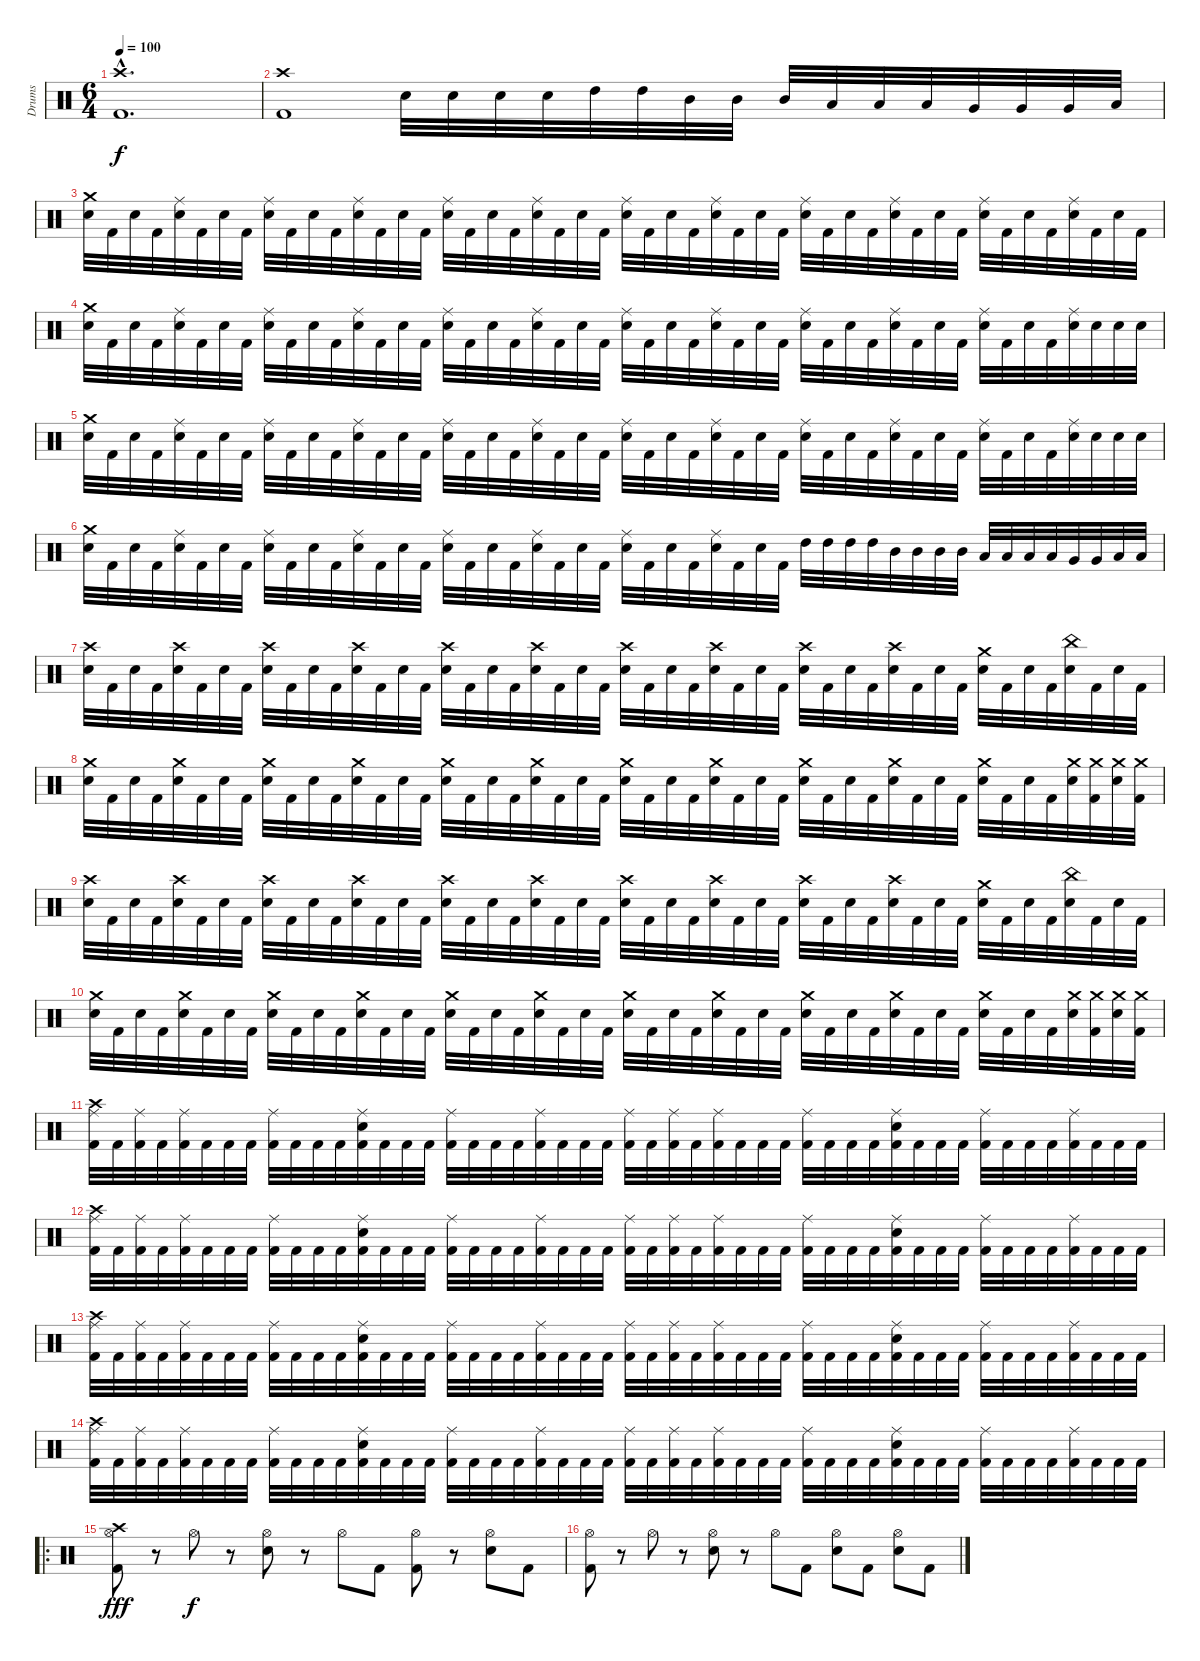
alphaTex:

\track ("Drums" "Drums") {instrument percussion}
\staff {score}
\articulation defaults
\ts (6 4)
\tempo 100
\clef neutral
\ks c
("Crash high (hit)"{hac} "Kick (hit) 2"{hac}).1{d dy f} |
("Crash high (hit)" "Kick (hit) 2").1 "Electric Snare (hit)".32 "Electric Snare (hit)".32 "Electric Snare (hit)".32 "Electric Snare (hit)".32 "High Tom (hit)".32 "High Tom (hit)".32 "Mid Tom (hit)".32 "Mid Tom (hit)".32 "Mid Tom (hit)".32 "Low Tom (hit)".32 "Low Tom (hit)".32 "Low Tom (hit)".32 "Very Low Tom (hit)".32 "Very Low Tom (hit)".32 "Very Low Tom (hit)".32 "Low Floor Tom (hit)".32 |
("Electric Snare (hit)" "Crash medium (hit)").32 "Kick (hit) 2".32 "Electric Snare (hit)".32 "Kick (hit) 2".32 ("Electric Snare (hit)" "Ride (middle)").32 "Kick (hit) 2".32 "Electric Snare (hit)".32 "Kick (hit) 2".32 ("Electric Snare (hit)" "Ride (middle)").32 "Kick (hit) 2".32 "Electric Snare (hit)".32 "Kick (hit) 2".32 ("Electric Snare (hit)" "Ride (middle)").32 "Kick (hit) 2".32 "Electric Snare (hit)".32 "Kick (hit) 2".32 ("Electric Snare (hit)" "Ride (middle)").32 "Kick (hit) 2".32 "Electric Snare (hit)".32 "Kick (hit) 2".32 ("Electric Snare (hit)" "Ride (middle)").32 "Kick (hit) 2".32 "Electric Snare (hit)".32 "Kick (hit) 2".32 ("Electric Snare (hit)" "Ride (middle)").32 "Kick (hit) 2".32 "Electric Snare (hit)".32 "Kick (hit) 2".32 ("Electric Snare (hit)" "Ride (middle)").32 "Kick (hit) 2".32 "Electric Snare (hit)".32 "Kick (hit) 2".32 ("Electric Snare (hit)" "Ride (middle)").32 "Kick (hit) 2".32 "Electric Snare (hit)".32 "Kick (hit) 2".32 ("Electric Snare (hit)" "Ride (middle)").32 "Kick (hit) 2".32 "Electric Snare (hit)".32 "Kick (hit) 2".32 ("Electric Snare (hit)" "Ride (middle)").32 "Kick (hit) 2".32 "Electric Snare (hit)".32 "Kick (hit) 2".32 ("Electric Snare (hit)" "Ride (middle)").32 "Kick (hit) 2".32 "Electric Snare (hit)".32 "Kick (hit) 2".32 |
("Electric Snare (hit)" "Crash medium (hit)").32 "Kick (hit) 2".32 "Electric Snare (hit)".32 "Kick (hit) 2".32 ("Electric Snare (hit)" "Ride (middle)").32 "Kick (hit) 2".32 "Electric Snare (hit)".32 "Kick (hit) 2".32 ("Electric Snare (hit)" "Ride (middle)").32 "Kick (hit) 2".32 "Electric Snare (hit)".32 "Kick (hit) 2".32 ("Electric Snare (hit)" "Ride (middle)").32 "Kick (hit) 2".32 "Electric Snare (hit)".32 "Kick (hit) 2".32 ("Electric Snare (hit)" "Ride (middle)").32 "Kick (hit) 2".32 "Electric Snare (hit)".32 "Kick (hit) 2".32 ("Electric Snare (hit)" "Ride (middle)").32 "Kick (hit) 2".32 "Electric Snare (hit)".32 "Kick (hit) 2".32 ("Electric Snare (hit)" "Ride (middle)").32 "Kick (hit) 2".32 "Electric Snare (hit)".32 "Kick (hit) 2".32 ("Electric Snare (hit)" "Ride (middle)").32 "Kick (hit) 2".32 "Electric Snare (hit)".32 "Kick (hit) 2".32 ("Electric Snare (hit)" "Ride (middle)").32 "Kick (hit) 2".32 "Electric Snare (hit)".32 "Kick (hit) 2".32 ("Electric Snare (hit)" "Ride (middle)").32 "Kick (hit) 2".32 "Electric Snare (hit)".32 "Kick (hit) 2".32 ("Electric Snare (hit)" "Ride (middle)").32 "Kick (hit) 2".32 "Electric Snare (hit)".32 "Kick (hit) 2".32 ("Electric Snare (hit)" "Ride (middle)").32 "Electric Snare (hit)".32 "Electric Snare (hit)".32 "Electric Snare (hit)".32 |
("Electric Snare (hit)" "Crash medium (hit)").32 "Kick (hit) 2".32 "Electric Snare (hit)".32 "Kick (hit) 2".32 ("Electric Snare (hit)" "Ride (middle)").32 "Kick (hit) 2".32 "Electric Snare (hit)".32 "Kick (hit) 2".32 ("Electric Snare (hit)" "Ride (middle)").32 "Kick (hit) 2".32 "Electric Snare (hit)".32 "Kick (hit) 2".32 ("Electric Snare (hit)" "Ride (middle)").32 "Kick (hit) 2".32 "Electric Snare (hit)".32 "Kick (hit) 2".32 ("Electric Snare (hit)" "Ride (middle)").32 "Kick (hit) 2".32 "Electric Snare (hit)".32 "Kick (hit) 2".32 ("Electric Snare (hit)" "Ride (middle)").32 "Kick (hit) 2".32 "Electric Snare (hit)".32 "Kick (hit) 2".32 ("Electric Snare (hit)" "Ride (middle)").32 "Kick (hit) 2".32 "Electric Snare (hit)".32 "Kick (hit) 2".32 ("Electric Snare (hit)" "Ride (middle)").32 "Kick (hit) 2".32 "Electric Snare (hit)".32 "Kick (hit) 2".32 ("Electric Snare (hit)" "Ride (middle)").32 "Kick (hit) 2".32 "Electric Snare (hit)".32 "Kick (hit) 2".32 ("Electric Snare (hit)" "Ride (middle)").32 "Kick (hit) 2".32 "Electric Snare (hit)".32 "Kick (hit) 2".32 ("Electric Snare (hit)" "Ride (middle)").32 "Kick (hit) 2".32 "Electric Snare (hit)".32 "Kick (hit) 2".32 ("Electric Snare (hit)" "Ride (middle)").32 "Electric Snare (hit)".32 "Electric Snare (hit)".32 "Electric Snare (hit)".32 |
("Electric Snare (hit)" "Crash medium (hit)").32 "Kick (hit) 2".32 "Electric Snare (hit)".32 "Kick (hit) 2".32 ("Electric Snare (hit)" "Ride (middle)").32 "Kick (hit) 2".32 "Electric Snare (hit)".32 "Kick (hit) 2".32 ("Electric Snare (hit)" "Ride (middle)").32 "Kick (hit) 2".32 "Electric Snare (hit)".32 "Kick (hit) 2".32 ("Electric Snare (hit)" "Ride (middle)").32 "Kick (hit) 2".32 "Electric Snare (hit)".32 "Kick (hit) 2".32 ("Electric Snare (hit)" "Ride (middle)").32 "Kick (hit) 2".32 "Electric Snare (hit)".32 "Kick (hit) 2".32 ("Electric Snare (hit)" "Ride (middle)").32 "Kick (hit) 2".32 "Electric Snare (hit)".32 "Kick (hit) 2".32 ("Electric Snare (hit)" "Ride (middle)").32 "Kick (hit) 2".32 "Electric Snare (hit)".32 "Kick (hit) 2".32 ("Electric Snare (hit)" "Ride (middle)").32 "Kick (hit) 2".32 "Electric Snare (hit)".32 "Kick (hit) 2".32 "High Tom (hit)".32 "High Tom (hit)".32 "High Tom (hit)".32 "High Tom (hit)".32 "Mid Tom (hit)".32 "Mid Tom (hit)".32 "Mid Tom (hit)".32 "Mid Tom (hit)".32 "Low Tom (hit)".32 "Low Tom (hit)".32 "Low Tom (hit)".32 "Low Tom (hit)".32 "Very Low Tom (hit)".32 "Very Low Tom (hit)".32 "Low Floor Tom (hit)".32 "Low Floor Tom (hit)".32 |
("Electric Snare (hit)" "Crash high (hit)").32 "Kick (hit) 2".32 "Electric Snare (hit)".32 "Kick (hit) 2".32 ("Electric Snare (hit)" "Crash high (hit)").32 "Kick (hit) 2".32 "Electric Snare (hit)".32 "Kick (hit) 2".32 ("Electric Snare (hit)" "Crash high (hit)").32 "Kick (hit) 2".32 "Electric Snare (hit)".32 "Kick (hit) 2".32 ("Electric Snare (hit)" "Crash high (hit)").32 "Kick (hit) 2".32 "Electric Snare (hit)".32 "Kick (hit) 2".32 ("Electric Snare (hit)" "Crash high (hit)").32 "Kick (hit) 2".32 "Electric Snare (hit)".32 "Kick (hit) 2".32 ("Electric Snare (hit)" "Crash high (hit)").32 "Kick (hit) 2".32 "Electric Snare (hit)".32 "Kick (hit) 2".32 ("Electric Snare (hit)" "Crash high (hit)").32 "Kick (hit) 2".32 "Electric Snare (hit)".32 "Kick (hit) 2".32 ("Electric Snare (hit)" "Crash high (hit)").32 "Kick (hit) 2".32 "Electric Snare (hit)".32 "Kick (hit) 2".32 ("Electric Snare (hit)" "Crash high (hit)").32 "Kick (hit) 2".32 "Electric Snare (hit)".32 "Kick (hit) 2".32 ("Electric Snare (hit)" "Crash high (hit)").32 "Kick (hit) 2".32 "Electric Snare (hit)".32 "Kick (hit) 2".32 ("Electric Snare (hit)" "Crash medium (hit)").32 "Kick (hit) 2".32 "Electric Snare (hit)".32 "Kick (hit) 2".32 ("Electric Snare (hit)" "China (hit)").32 "Kick (hit) 2".32 "Electric Snare (hit)".32 "Kick (hit) 2".32 |
("Electric Snare (hit)" "Crash medium (hit)").32 "Kick (hit) 2".32 "Electric Snare (hit)".32 "Kick (hit) 2".32 ("Electric Snare (hit)" "Crash medium (hit)").32 "Kick (hit) 2".32 "Electric Snare (hit)".32 "Kick (hit) 2".32 ("Electric Snare (hit)" "Crash medium (hit)").32 "Kick (hit) 2".32 "Electric Snare (hit)".32 "Kick (hit) 2".32 ("Electric Snare (hit)" "Crash medium (hit)").32 "Kick (hit) 2".32 "Electric Snare (hit)".32 "Kick (hit) 2".32 ("Electric Snare (hit)" "Crash medium (hit)").32 "Kick (hit) 2".32 "Electric Snare (hit)".32 "Kick (hit) 2".32 ("Electric Snare (hit)" "Crash medium (hit)").32 "Kick (hit) 2".32 "Electric Snare (hit)".32 "Kick (hit) 2".32 ("Electric Snare (hit)" "Crash medium (hit)").32 "Kick (hit) 2".32 "Electric Snare (hit)".32 "Kick (hit) 2".32 ("Electric Snare (hit)" "Crash medium (hit)").32 "Kick (hit) 2".32 "Electric Snare (hit)".32 "Kick (hit) 2".32 ("Electric Snare (hit)" "Crash medium (hit)").32 "Kick (hit) 2".32 "Electric Snare (hit)".32 "Kick (hit) 2".32 ("Electric Snare (hit)" "Crash medium (hit)").32 "Kick (hit) 2".32 "Electric Snare (hit)".32 "Kick (hit) 2".32 ("Electric Snare (hit)" "Crash medium (hit)").32 "Kick (hit) 2".32 "Electric Snare (hit)".32 "Kick (hit) 2".32 ("Electric Snare (hit)" "Crash medium (hit)").32 ("Kick (hit) 2" "Crash medium (hit)").32 ("Electric Snare (hit)" "Crash medium (hit)").32 ("Kick (hit) 2" "Crash medium (hit)").32 |
("Electric Snare (hit)" "Crash high (hit)").32 "Kick (hit) 2".32 "Electric Snare (hit)".32 "Kick (hit) 2".32 ("Electric Snare (hit)" "Crash high (hit)").32 "Kick (hit) 2".32 "Electric Snare (hit)".32 "Kick (hit) 2".32 ("Electric Snare (hit)" "Crash high (hit)").32 "Kick (hit) 2".32 "Electric Snare (hit)".32 "Kick (hit) 2".32 ("Electric Snare (hit)" "Crash high (hit)").32 "Kick (hit) 2".32 "Electric Snare (hit)".32 "Kick (hit) 2".32 ("Electric Snare (hit)" "Crash high (hit)").32 "Kick (hit) 2".32 "Electric Snare (hit)".32 "Kick (hit) 2".32 ("Electric Snare (hit)" "Crash high (hit)").32 "Kick (hit) 2".32 "Electric Snare (hit)".32 "Kick (hit) 2".32 ("Electric Snare (hit)" "Crash high (hit)").32 "Kick (hit) 2".32 "Electric Snare (hit)".32 "Kick (hit) 2".32 ("Electric Snare (hit)" "Crash high (hit)").32 "Kick (hit) 2".32 "Electric Snare (hit)".32 "Kick (hit) 2".32 ("Electric Snare (hit)" "Crash high (hit)").32 "Kick (hit) 2".32 "Electric Snare (hit)".32 "Kick (hit) 2".32 ("Electric Snare (hit)" "Crash high (hit)").32 "Kick (hit) 2".32 "Electric Snare (hit)".32 "Kick (hit) 2".32 ("Electric Snare (hit)" "Crash medium (hit)").32 "Kick (hit) 2".32 "Electric Snare (hit)".32 "Kick (hit) 2".32 ("Electric Snare (hit)" "China (hit)").32 "Kick (hit) 2".32 "Electric Snare (hit)".32 "Kick (hit) 2".32 |
("Electric Snare (hit)" "Crash medium (hit)").32 "Kick (hit) 2".32 "Electric Snare (hit)".32 "Kick (hit) 2".32 ("Electric Snare (hit)" "Crash medium (hit)").32 "Kick (hit) 2".32 "Electric Snare (hit)".32 "Kick (hit) 2".32 ("Electric Snare (hit)" "Crash medium (hit)").32 "Kick (hit) 2".32 "Electric Snare (hit)".32 "Kick (hit) 2".32 ("Electric Snare (hit)" "Crash medium (hit)").32 "Kick (hit) 2".32 "Electric Snare (hit)".32 "Kick (hit) 2".32 ("Electric Snare (hit)" "Crash medium (hit)").32 "Kick (hit) 2".32 "Electric Snare (hit)".32 "Kick (hit) 2".32 ("Electric Snare (hit)" "Crash medium (hit)").32 "Kick (hit) 2".32 "Electric Snare (hit)".32 "Kick (hit) 2".32 ("Electric Snare (hit)" "Crash medium (hit)").32 "Kick (hit) 2".32 "Electric Snare (hit)".32 "Kick (hit) 2".32 ("Electric Snare (hit)" "Crash medium (hit)").32 "Kick (hit) 2".32 "Electric Snare (hit)".32 "Kick (hit) 2".32 ("Electric Snare (hit)" "Crash medium (hit)").32 "Kick (hit) 2".32 "Electric Snare (hit)".32 "Kick (hit) 2".32 ("Electric Snare (hit)" "Crash medium (hit)").32 "Kick (hit) 2".32 "Electric Snare (hit)".32 "Kick (hit) 2".32 ("Electric Snare (hit)" "Crash medium (hit)").32 "Kick (hit) 2".32 "Electric Snare (hit)".32 "Kick (hit) 2".32 ("Electric Snare (hit)" "Crash medium (hit)").32 ("Kick (hit) 2" "Crash medium (hit)").32 ("Electric Snare (hit)" "Crash medium (hit)").32 ("Kick (hit) 2" "Crash medium (hit)").32 |
("Kick (hit) 2" "Crash high (hit)" "Ride (middle)").32 "Kick (hit) 2".32 ("Kick (hit) 2" "Ride (middle)").32 "Kick (hit) 2".32 ("Kick (hit) 2" "Ride (middle)").32 "Kick (hit) 2".32 "Kick (hit) 2".32 "Kick (hit) 2".32 ("Kick (hit) 2" "Ride (middle)").32 "Kick (hit) 2".32 "Kick (hit) 2".32 "Kick (hit) 2".32 ("Kick (hit) 2" "Electric Snare (hit)" "Ride (middle)").32 "Kick (hit) 2".32 "Kick (hit) 2".32 "Kick (hit) 2".32 ("Kick (hit) 2" "Ride (middle)").32 "Kick (hit) 2".32 "Kick (hit) 2".32 "Kick (hit) 2".32 ("Kick (hit) 2" "Ride (middle)").32 "Kick (hit) 2".32 "Kick (hit) 2".32 "Kick (hit) 2".32 ("Kick (hit) 2" "Ride (middle)").32 "Kick (hit) 2".32 ("Kick (hit) 2" "Ride (middle)").32 "Kick (hit) 2".32 ("Kick (hit) 2" "Ride (middle)").32 "Kick (hit) 2".32 "Kick (hit) 2".32 "Kick (hit) 2".32 ("Kick (hit) 2" "Ride (middle)").32 "Kick (hit) 2".32 "Kick (hit) 2".32 "Kick (hit) 2".32 ("Kick (hit) 2" "Electric Snare (hit)" "Ride (middle)").32 "Kick (hit) 2".32 "Kick (hit) 2".32 "Kick (hit) 2".32 ("Kick (hit) 2" "Ride (middle)").32 "Kick (hit) 2".32 "Kick (hit) 2".32 "Kick (hit) 2".32 ("Kick (hit) 2" "Ride (middle)").32 "Kick (hit) 2".32 "Kick (hit) 2".32 "Kick (hit) 2".32 |
("Kick (hit) 2" "Crash high (hit)" "Ride (middle)").32 "Kick (hit) 2".32 ("Kick (hit) 2" "Ride (middle)").32 "Kick (hit) 2".32 ("Kick (hit) 2" "Ride (middle)").32 "Kick (hit) 2".32 "Kick (hit) 2".32 "Kick (hit) 2".32 ("Kick (hit) 2" "Ride (middle)").32 "Kick (hit) 2".32 "Kick (hit) 2".32 "Kick (hit) 2".32 ("Kick (hit) 2" "Electric Snare (hit)" "Ride (middle)").32 "Kick (hit) 2".32 "Kick (hit) 2".32 "Kick (hit) 2".32 ("Kick (hit) 2" "Ride (middle)").32 "Kick (hit) 2".32 "Kick (hit) 2".32 "Kick (hit) 2".32 ("Kick (hit) 2" "Ride (middle)").32 "Kick (hit) 2".32 "Kick (hit) 2".32 "Kick (hit) 2".32 ("Kick (hit) 2" "Ride (middle)").32 "Kick (hit) 2".32 ("Kick (hit) 2" "Ride (middle)").32 "Kick (hit) 2".32 ("Kick (hit) 2" "Ride (middle)").32 "Kick (hit) 2".32 "Kick (hit) 2".32 "Kick (hit) 2".32 ("Kick (hit) 2" "Ride (middle)").32 "Kick (hit) 2".32 "Kick (hit) 2".32 "Kick (hit) 2".32 ("Kick (hit) 2" "Electric Snare (hit)" "Ride (middle)").32 "Kick (hit) 2".32 "Kick (hit) 2".32 "Kick (hit) 2".32 ("Kick (hit) 2" "Ride (middle)").32 "Kick (hit) 2".32 "Kick (hit) 2".32 "Kick (hit) 2".32 ("Kick (hit) 2" "Ride (middle)").32 "Kick (hit) 2".32 "Kick (hit) 2".32 "Kick (hit) 2".32 |
("Kick (hit) 2" "Crash high (hit)" "Ride (middle)").32 "Kick (hit) 2".32 ("Kick (hit) 2" "Ride (middle)").32 "Kick (hit) 2".32 ("Kick (hit) 2" "Ride (middle)").32 "Kick (hit) 2".32 "Kick (hit) 2".32 "Kick (hit) 2".32 ("Kick (hit) 2" "Ride (middle)").32 "Kick (hit) 2".32 "Kick (hit) 2".32 "Kick (hit) 2".32 ("Kick (hit) 2" "Electric Snare (hit)" "Ride (middle)").32 "Kick (hit) 2".32 "Kick (hit) 2".32 "Kick (hit) 2".32 ("Kick (hit) 2" "Ride (middle)").32 "Kick (hit) 2".32 "Kick (hit) 2".32 "Kick (hit) 2".32 ("Kick (hit) 2" "Ride (middle)").32 "Kick (hit) 2".32 "Kick (hit) 2".32 "Kick (hit) 2".32 ("Kick (hit) 2" "Ride (middle)").32 "Kick (hit) 2".32 ("Kick (hit) 2" "Ride (middle)").32 "Kick (hit) 2".32 ("Kick (hit) 2" "Ride (middle)").32 "Kick (hit) 2".32 "Kick (hit) 2".32 "Kick (hit) 2".32 ("Kick (hit) 2" "Ride (middle)").32 "Kick (hit) 2".32 "Kick (hit) 2".32 "Kick (hit) 2".32 ("Kick (hit) 2" "Electric Snare (hit)" "Ride (middle)").32 "Kick (hit) 2".32 "Kick (hit) 2".32 "Kick (hit) 2".32 ("Kick (hit) 2" "Ride (middle)").32 "Kick (hit) 2".32 "Kick (hit) 2".32 "Kick (hit) 2".32 ("Kick (hit) 2" "Ride (middle)").32 "Kick (hit) 2".32 "Kick (hit) 2".32 "Kick (hit) 2".32 |
("Kick (hit) 2" "Crash high (hit)" "Ride (middle)").32 "Kick (hit) 2".32 ("Kick (hit) 2" "Ride (middle)").32 "Kick (hit) 2".32 ("Kick (hit) 2" "Ride (middle)").32 "Kick (hit) 2".32 "Kick (hit) 2".32 "Kick (hit) 2".32 ("Kick (hit) 2" "Ride (middle)").32 "Kick (hit) 2".32 "Kick (hit) 2".32 "Kick (hit) 2".32 ("Kick (hit) 2" "Electric Snare (hit)" "Ride (middle)").32 "Kick (hit) 2".32 "Kick (hit) 2".32 "Kick (hit) 2".32 ("Kick (hit) 2" "Ride (middle)").32 "Kick (hit) 2".32 "Kick (hit) 2".32 "Kick (hit) 2".32 ("Kick (hit) 2" "Ride (middle)").32 "Kick (hit) 2".32 "Kick (hit) 2".32 "Kick (hit) 2".32 ("Kick (hit) 2" "Ride (middle)").32 "Kick (hit) 2".32 ("Kick (hit) 2" "Ride (middle)").32 "Kick (hit) 2".32 ("Kick (hit) 2" "Ride (middle)").32 "Kick (hit) 2".32 "Kick (hit) 2".32 "Kick (hit) 2".32 ("Kick (hit) 2" "Ride (middle)").32 "Kick (hit) 2".32 "Kick (hit) 2".32 "Kick (hit) 2".32 ("Kick (hit) 2" "Electric Snare (hit)" "Ride (middle)").32 "Kick (hit) 2".32 "Kick (hit) 2".32 "Kick (hit) 2".32 ("Kick (hit) 2" "Ride (middle)").32 "Kick (hit) 2".32 "Kick (hit) 2".32 "Kick (hit) 2".32 ("Kick (hit) 2" "Ride (middle)").32 "Kick (hit) 2".32 "Kick (hit) 2".32 "Kick (hit) 2".32 |
\ro
("Hi-Hat (open)" "Crash high (hit)" "Kick (hit) 2").8{dy fff} r.8 "Hi-Hat (open)".8{dy f} r.8 ("Hi-Hat (open)" "Electric Snare (hit)").8 r.8 "Hi-Hat (open)".8 "Kick (hit) 2".8 ("Hi-Hat (open)" "Kick (hit) 2").8 r.8 ("Hi-Hat (open)" "Electric Snare (hit)").8 "Kick (hit) 2".8 |
("Hi-Hat (open)" "Kick (hit) 2").8 r.8 "Hi-Hat (open)".8 r.8 ("Hi-Hat (open)" "Electric Snare (hit)").8 r.8 "Hi-Hat (open)".8 "Kick (hit) 2".8 ("Hi-Hat (open)" "Electric Snare (hit)").8 "Kick (hit) 2".8 ("Hi-Hat (open)" "Electric Snare (hit)").8 "Kick (hit) 2".8
